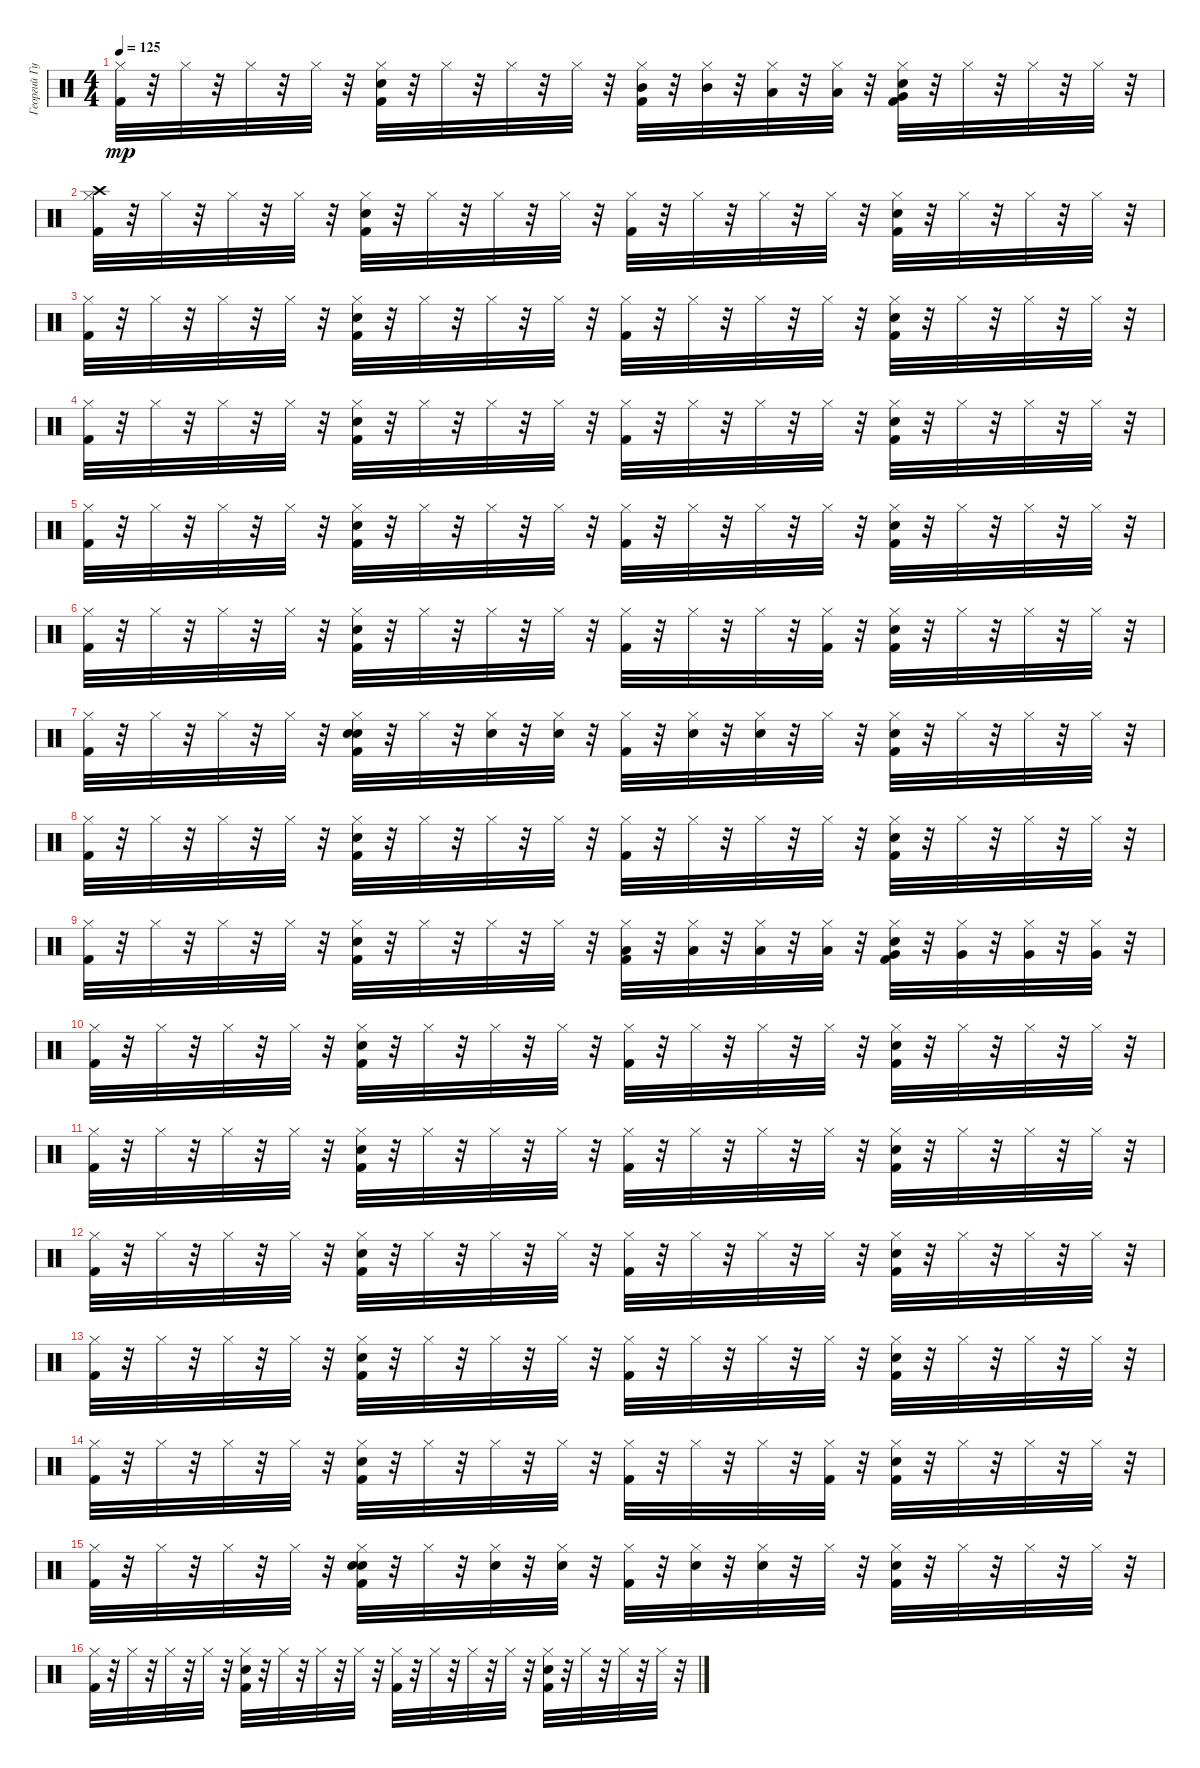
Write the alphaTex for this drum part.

\track ("Георгий Гурьянов" "Георгий Гу") {instrument percussion}
\staff {score}
\articulation defaults
\ts (4 4)
\tempo 125
\clef neutral
\ks c
("Kick (hit) 2" "Hi-Hat (closed)").32{dy mp} r.32 "Hi-Hat (closed)".32 r.32 "Hi-Hat (closed)".32 r.32 "Hi-Hat (closed)".32 r.32 ("Kick (hit) 2" "Snare (hit) 2" "Hi-Hat (closed)").32 r.32 "Hi-Hat (closed)".32 r.32 "Hi-Hat (closed)".32 r.32 "Hi-Hat (closed)".32 r.32 ("Mid Tom (hit)" "Kick (hit) 2" "Hi-Hat (closed)").32 r.32 ("Mid Tom (hit)" "Hi-Hat (closed)").32 r.32 ("Low Tom (hit)" "Hi-Hat (closed)").32 r.32 ("Low Tom (hit)" "Hi-Hat (closed)").32 r.32 ("Very Low Tom (hit)" "Kick (hit) 2" "Snare (hit) 2" "Hi-Hat (closed)").32 r.32 "Hi-Hat (closed)".32 r.32 "Hi-Hat (closed)".32 r.32 "Hi-Hat (closed)".32 r.32 |
("Crash high (hit)" "Kick (hit) 2" "Hi-Hat (closed)").32 r.32 "Hi-Hat (closed)".32 r.32 "Hi-Hat (closed)".32 r.32 "Hi-Hat (closed)".32 r.32 ("Kick (hit) 2" "Snare (hit) 2" "Hi-Hat (closed)").32 r.32 "Hi-Hat (closed)".32 r.32 "Hi-Hat (closed)".32 r.32 "Hi-Hat (closed)".32 r.32 ("Kick (hit) 2" "Hi-Hat (closed)").32 r.32 "Hi-Hat (closed)".32 r.32 "Hi-Hat (closed)".32 r.32 "Hi-Hat (closed)".32 r.32 ("Kick (hit) 2" "Snare (hit) 2" "Hi-Hat (closed)").32 r.32 "Hi-Hat (closed)".32 r.32 "Hi-Hat (closed)".32 r.32 "Hi-Hat (closed)".32 r.32 |
("Kick (hit) 2" "Hi-Hat (closed)").32 r.32 "Hi-Hat (closed)".32 r.32 "Hi-Hat (closed)".32 r.32 "Hi-Hat (closed)".32 r.32 ("Kick (hit) 2" "Snare (hit) 2" "Hi-Hat (closed)").32 r.32 "Hi-Hat (closed)".32 r.32 "Hi-Hat (closed)".32 r.32 "Hi-Hat (closed)".32 r.32 ("Kick (hit) 2" "Hi-Hat (closed)").32 r.32 "Hi-Hat (closed)".32 r.32 "Hi-Hat (closed)".32 r.32 "Hi-Hat (closed)".32 r.32 ("Kick (hit) 2" "Snare (hit) 2" "Hi-Hat (closed)").32 r.32 "Hi-Hat (closed)".32 r.32 "Hi-Hat (closed)".32 r.32 "Hi-Hat (closed)".32 r.32 |
("Kick (hit) 2" "Hi-Hat (closed)").32 r.32 "Hi-Hat (closed)".32 r.32 "Hi-Hat (closed)".32 r.32 "Hi-Hat (closed)".32 r.32 ("Kick (hit) 2" "Snare (hit) 2" "Hi-Hat (closed)").32 r.32 "Hi-Hat (closed)".32 r.32 "Hi-Hat (closed)".32 r.32 "Hi-Hat (closed)".32 r.32 ("Kick (hit) 2" "Hi-Hat (closed)").32 r.32 "Hi-Hat (closed)".32 r.32 "Hi-Hat (closed)".32 r.32 "Hi-Hat (closed)".32 r.32 ("Kick (hit) 2" "Snare (hit) 2" "Hi-Hat (closed)").32 r.32 "Hi-Hat (closed)".32 r.32 "Hi-Hat (closed)".32 r.32 "Hi-Hat (closed)".32 r.32 |
("Kick (hit) 2" "Hi-Hat (closed)").32 r.32 "Hi-Hat (closed)".32 r.32 "Hi-Hat (closed)".32 r.32 "Hi-Hat (closed)".32 r.32 ("Kick (hit) 2" "Snare (hit) 2" "Hi-Hat (closed)").32 r.32 "Hi-Hat (closed)".32 r.32 "Hi-Hat (closed)".32 r.32 "Hi-Hat (closed)".32 r.32 ("Kick (hit) 2" "Hi-Hat (closed)").32 r.32 "Hi-Hat (closed)".32 r.32 "Hi-Hat (closed)".32 r.32 "Hi-Hat (closed)".32 r.32 ("Kick (hit) 2" "Snare (hit) 2" "Hi-Hat (closed)").32 r.32 "Hi-Hat (closed)".32 r.32 "Hi-Hat (closed)".32 r.32 "Hi-Hat (closed)".32 r.32 |
("Kick (hit) 2" "Hi-Hat (closed)").32 r.32 "Hi-Hat (closed)".32 r.32 "Hi-Hat (closed)".32 r.32 "Hi-Hat (closed)".32 r.32 ("Kick (hit) 2" "Snare (hit) 2" "Hi-Hat (closed)").32 r.32 "Hi-Hat (closed)".32 r.32 "Hi-Hat (closed)".32 r.32 "Hi-Hat (closed)".32 r.32 ("Kick (hit) 2" "Hi-Hat (closed)").32 r.32 "Hi-Hat (closed)".32 r.32 "Hi-Hat (closed)".32 r.32 ("Kick (hit) 2" "Hi-Hat (closed)").32 r.32 ("Kick (hit) 2" "Snare (hit) 2" "Hi-Hat (closed)").32 r.32 "Hi-Hat (closed)".32 r.32 "Hi-Hat (closed)".32 r.32 "Hi-Hat (closed)".32 r.32 |
("Kick (hit) 2" "Hi-Hat (closed)").32 r.32 "Hi-Hat (closed)".32 r.32 "Hi-Hat (closed)".32 r.32 "Hi-Hat (closed)".32 r.32 ("Hand Clap (hit)" "Kick (hit) 2" "Snare (hit) 2" "Hi-Hat (closed)").32 r.32 "Hi-Hat (closed)".32 r.32 ("Hand Clap (hit)" "Hi-Hat (closed)").32 r.32 ("Hand Clap (hit)" "Hi-Hat (closed)").32 r.32 ("Kick (hit) 2" "Hi-Hat (closed)").32 r.32 ("Hand Clap (hit)" "Hi-Hat (closed)").32 r.32 ("Hand Clap (hit)" "Hi-Hat (closed)").32 r.32 "Hi-Hat (closed)".32 r.32 ("Kick (hit) 2" "Snare (hit) 2" "Hi-Hat (closed)").32 r.32 "Hi-Hat (closed)".32 r.32 "Hi-Hat (closed)".32 r.32 "Hi-Hat (closed)".32 r.32 |
("Kick (hit) 2" "Hi-Hat (closed)").32 r.32 "Hi-Hat (closed)".32 r.32 "Hi-Hat (closed)".32 r.32 "Hi-Hat (closed)".32 r.32 ("Kick (hit) 2" "Snare (hit) 2" "Hi-Hat (closed)").32 r.32 "Hi-Hat (closed)".32 r.32 "Hi-Hat (closed)".32 r.32 "Hi-Hat (closed)".32 r.32 ("Kick (hit) 2" "Hi-Hat (closed)").32 r.32 "Hi-Hat (closed)".32 r.32 "Hi-Hat (closed)".32 r.32 "Hi-Hat (closed)".32 r.32 ("Kick (hit) 2" "Snare (hit) 2" "Hi-Hat (closed)").32 r.32 "Hi-Hat (closed)".32 r.32 "Hi-Hat (closed)".32 r.32 "Hi-Hat (closed)".32 r.32 |
("Kick (hit) 2" "Hi-Hat (closed)").32 r.32 "Hi-Hat (closed)".32 r.32 "Hi-Hat (closed)".32 r.32 "Hi-Hat (closed)".32 r.32 ("Kick (hit) 2" "Snare (hit) 2" "Hi-Hat (closed)").32 r.32 "Hi-Hat (closed)".32 r.32 "Hi-Hat (closed)".32 r.32 "Hi-Hat (closed)".32 r.32 ("Low Tom (hit)" "Kick (hit) 2" "Hi-Hat (closed)").32 r.32 ("Low Tom (hit)" "Hi-Hat (closed)").32 r.32 ("Low Tom (hit)" "Hi-Hat (closed)").32 r.32 ("Low Tom (hit)" "Hi-Hat (closed)").32 r.32 ("Very Low Tom (hit)" "Kick (hit) 2" "Snare (hit) 2" "Hi-Hat (closed)").32 r.32 ("Very Low Tom (hit)" "Hi-Hat (closed)").32 r.32 ("Very Low Tom (hit)" "Hi-Hat (closed)").32 r.32 ("Very Low Tom (hit)" "Hi-Hat (closed)").32 r.32 |
("Kick (hit) 2" "Hi-Hat (closed)").32 r.32 "Hi-Hat (closed)".32 r.32 "Hi-Hat (closed)".32 r.32 "Hi-Hat (closed)".32 r.32 ("Kick (hit) 2" "Snare (hit) 2" "Hi-Hat (closed)").32 r.32 "Hi-Hat (closed)".32 r.32 "Hi-Hat (closed)".32 r.32 "Hi-Hat (closed)".32 r.32 ("Kick (hit) 2" "Hi-Hat (closed)").32 r.32 "Hi-Hat (closed)".32 r.32 "Hi-Hat (closed)".32 r.32 "Hi-Hat (closed)".32 r.32 ("Kick (hit) 2" "Snare (hit) 2" "Hi-Hat (closed)").32 r.32 "Hi-Hat (closed)".32 r.32 "Hi-Hat (closed)".32 r.32 "Hi-Hat (closed)".32 r.32 |
("Kick (hit) 2" "Hi-Hat (closed)").32 r.32 "Hi-Hat (closed)".32 r.32 "Hi-Hat (closed)".32 r.32 "Hi-Hat (closed)".32 r.32 ("Kick (hit) 2" "Snare (hit) 2" "Hi-Hat (closed)").32 r.32 "Hi-Hat (closed)".32 r.32 "Hi-Hat (closed)".32 r.32 "Hi-Hat (closed)".32 r.32 ("Kick (hit) 2" "Hi-Hat (closed)").32 r.32 "Hi-Hat (closed)".32 r.32 "Hi-Hat (closed)".32 r.32 "Hi-Hat (closed)".32 r.32 ("Kick (hit) 2" "Snare (hit) 2" "Hi-Hat (closed)").32 r.32 "Hi-Hat (closed)".32 r.32 "Hi-Hat (closed)".32 r.32 "Hi-Hat (closed)".32 r.32 |
("Kick (hit) 2" "Hi-Hat (closed)").32 r.32 "Hi-Hat (closed)".32 r.32 "Hi-Hat (closed)".32 r.32 "Hi-Hat (closed)".32 r.32 ("Kick (hit) 2" "Snare (hit) 2" "Hi-Hat (closed)").32 r.32 "Hi-Hat (closed)".32 r.32 "Hi-Hat (closed)".32 r.32 "Hi-Hat (closed)".32 r.32 ("Kick (hit) 2" "Hi-Hat (closed)").32 r.32 "Hi-Hat (closed)".32 r.32 "Hi-Hat (closed)".32 r.32 "Hi-Hat (closed)".32 r.32 ("Kick (hit) 2" "Snare (hit) 2" "Hi-Hat (closed)").32 r.32 "Hi-Hat (closed)".32 r.32 "Hi-Hat (closed)".32 r.32 "Hi-Hat (closed)".32 r.32 |
("Kick (hit) 2" "Hi-Hat (closed)").32 r.32 "Hi-Hat (closed)".32 r.32 "Hi-Hat (closed)".32 r.32 "Hi-Hat (closed)".32 r.32 ("Kick (hit) 2" "Snare (hit) 2" "Hi-Hat (closed)").32 r.32 "Hi-Hat (closed)".32 r.32 "Hi-Hat (closed)".32 r.32 "Hi-Hat (closed)".32 r.32 ("Kick (hit) 2" "Hi-Hat (closed)").32 r.32 "Hi-Hat (closed)".32 r.32 "Hi-Hat (closed)".32 r.32 "Hi-Hat (closed)".32 r.32 ("Kick (hit) 2" "Snare (hit) 2" "Hi-Hat (closed)").32 r.32 "Hi-Hat (closed)".32 r.32 "Hi-Hat (closed)".32 r.32 "Hi-Hat (closed)".32 r.32 |
("Kick (hit) 2" "Hi-Hat (closed)").32 r.32 "Hi-Hat (closed)".32 r.32 "Hi-Hat (closed)".32 r.32 "Hi-Hat (closed)".32 r.32 ("Kick (hit) 2" "Snare (hit) 2" "Hi-Hat (closed)").32 r.32 "Hi-Hat (closed)".32 r.32 "Hi-Hat (closed)".32 r.32 "Hi-Hat (closed)".32 r.32 ("Kick (hit) 2" "Hi-Hat (closed)").32 r.32 "Hi-Hat (closed)".32 r.32 "Hi-Hat (closed)".32 r.32 ("Kick (hit) 2" "Hi-Hat (closed)").32 r.32 ("Kick (hit) 2" "Snare (hit) 2" "Hi-Hat (closed)").32 r.32 "Hi-Hat (closed)".32 r.32 "Hi-Hat (closed)".32 r.32 "Hi-Hat (closed)".32 r.32 |
("Kick (hit) 2" "Hi-Hat (closed)").32 r.32 "Hi-Hat (closed)".32 r.32 "Hi-Hat (closed)".32 r.32 "Hi-Hat (closed)".32 r.32 ("Hand Clap (hit)" "Kick (hit) 2" "Snare (hit) 2" "Hi-Hat (closed)").32 r.32 "Hi-Hat (closed)".32 r.32 ("Hand Clap (hit)" "Hi-Hat (closed)").32 r.32 ("Hand Clap (hit)" "Hi-Hat (closed)").32 r.32 ("Kick (hit) 2" "Hi-Hat (closed)").32 r.32 ("Hand Clap (hit)" "Hi-Hat (closed)").32 r.32 ("Hand Clap (hit)" "Hi-Hat (closed)").32 r.32 "Hi-Hat (closed)".32 r.32 ("Kick (hit) 2" "Snare (hit) 2" "Hi-Hat (closed)").32 r.32 "Hi-Hat (closed)".32 r.32 "Hi-Hat (closed)".32 r.32 "Hi-Hat (closed)".32 r.32 |
("Kick (hit) 2" "Hi-Hat (closed)").32 r.32 "Hi-Hat (closed)".32 r.32 "Hi-Hat (closed)".32 r.32 "Hi-Hat (closed)".32 r.32 ("Kick (hit) 2" "Snare (hit) 2" "Hi-Hat (closed)").32 r.32 "Hi-Hat (closed)".32 r.32 "Hi-Hat (closed)".32 r.32 "Hi-Hat (closed)".32 r.32 ("Kick (hit) 2" "Hi-Hat (closed)").32 r.32 "Hi-Hat (closed)".32 r.32 "Hi-Hat (closed)".32 r.32 "Hi-Hat (closed)".32 r.32 ("Kick (hit) 2" "Snare (hit) 2" "Hi-Hat (closed)").32 r.32 "Hi-Hat (closed)".32 r.32 "Hi-Hat (closed)".32 r.32 "Hi-Hat (closed)".32 r.32
